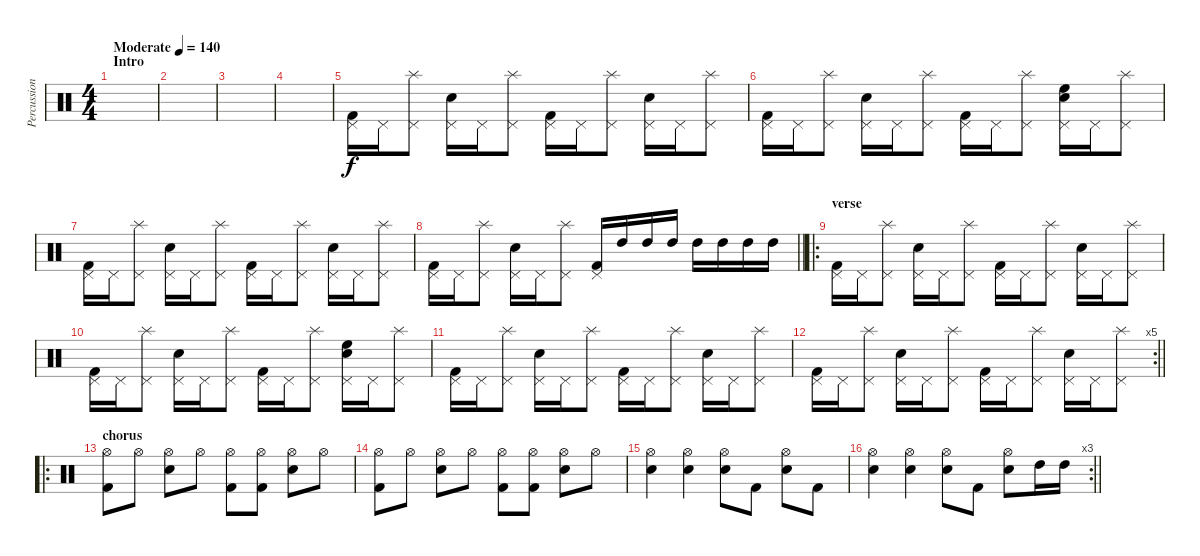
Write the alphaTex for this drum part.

\track ("Percussion" "Percussion") {instrument percussion}
\staff {score}
\articulation defaults
\ts (4 4)
\section ("" "Intro")
\tempo (140 "Moderate")
\clef neutral
\ks c
|
|
|
|
("Kick (hit) 2" "Pedal Hi-Hat (hit)").16 "Pedal Hi-Hat (hit)".16 ("Pedal Hi-Hat (hit)" "Splash (hit)").8 ("Snare (hit) 2" "Pedal Hi-Hat (hit)").16 "Pedal Hi-Hat (hit)".16 ("Pedal Hi-Hat (hit)" "Splash (hit)").8 ("Kick (hit) 2" "Pedal Hi-Hat (hit)").16 "Pedal Hi-Hat (hit)".16 ("Pedal Hi-Hat (hit)" "Splash (hit)").8 ("Snare (hit) 2" "Pedal Hi-Hat (hit)").16 "Pedal Hi-Hat (hit)".16 ("Pedal Hi-Hat (hit)" "Splash (hit)").8 |
("Kick (hit) 2" "Pedal Hi-Hat (hit)").16 "Pedal Hi-Hat (hit)".16 ("Pedal Hi-Hat (hit)" "Splash (hit)").8 ("Snare (hit) 2" "Pedal Hi-Hat (hit)").16 "Pedal Hi-Hat (hit)".16 ("Pedal Hi-Hat (hit)" "Splash (hit)").8 ("Kick (hit) 2" "Pedal Hi-Hat (hit)").16 "Pedal Hi-Hat (hit)".16 ("Pedal Hi-Hat (hit)" "Splash (hit)").8 ("Snare (hit) 2" "High Floor Tom (hit)" "Pedal Hi-Hat (hit)").16 "Pedal Hi-Hat (hit)".16 ("Pedal Hi-Hat (hit)" "Splash (hit)").8 |
("Kick (hit) 2" "Pedal Hi-Hat (hit)").16 "Pedal Hi-Hat (hit)".16 ("Pedal Hi-Hat (hit)" "Splash (hit)").8 ("Snare (hit) 2" "Pedal Hi-Hat (hit)").16 "Pedal Hi-Hat (hit)".16 ("Pedal Hi-Hat (hit)" "Splash (hit)").8 ("Kick (hit) 2" "Pedal Hi-Hat (hit)").16 "Pedal Hi-Hat (hit)".16 ("Pedal Hi-Hat (hit)" "Splash (hit)").8 ("Snare (hit) 2" "Pedal Hi-Hat (hit)").16 "Pedal Hi-Hat (hit)".16 ("Pedal Hi-Hat (hit)" "Splash (hit)").8 |
\barLineRight lightlight
("Kick (hit) 2" "Pedal Hi-Hat (hit)").16 "Pedal Hi-Hat (hit)".16 ("Pedal Hi-Hat (hit)" "Splash (hit)").8 ("Snare (hit) 2" "Pedal Hi-Hat (hit)").16 "Pedal Hi-Hat (hit)".16 ("Pedal Hi-Hat (hit)" "Splash (hit)").8 ("Kick (hit) 2" "Pedal Hi-Hat (hit)").16 "High Tom (hit)".16 "High Tom (hit)".16 "High Tom (hit)".16 "High Tom (hit)".16 "High Tom (hit)".16 "High Tom (hit)".16 "High Tom (hit)".16 |
\ro
\section ("" "verse")
("Kick (hit) 2" "Pedal Hi-Hat (hit)").16 "Pedal Hi-Hat (hit)".16 ("Pedal Hi-Hat (hit)" "Splash (hit)").8 ("Snare (hit) 2" "Pedal Hi-Hat (hit)").16 "Pedal Hi-Hat (hit)".16 ("Pedal Hi-Hat (hit)" "Splash (hit)").8 ("Kick (hit) 2" "Pedal Hi-Hat (hit)").16 "Pedal Hi-Hat (hit)".16 ("Pedal Hi-Hat (hit)" "Splash (hit)").8 ("Snare (hit) 2" "Pedal Hi-Hat (hit)").16 "Pedal Hi-Hat (hit)".16 ("Pedal Hi-Hat (hit)" "Splash (hit)").8 |
("Kick (hit) 2" "Pedal Hi-Hat (hit)").16 "Pedal Hi-Hat (hit)".16 ("Pedal Hi-Hat (hit)" "Splash (hit)").8 ("Snare (hit) 2" "Pedal Hi-Hat (hit)").16 "Pedal Hi-Hat (hit)".16 ("Pedal Hi-Hat (hit)" "Splash (hit)").8 ("Kick (hit) 2" "Pedal Hi-Hat (hit)").16 "Pedal Hi-Hat (hit)".16 ("Pedal Hi-Hat (hit)" "Splash (hit)").8 ("Snare (hit) 2" "High Floor Tom (hit)" "Pedal Hi-Hat (hit)").16 "Pedal Hi-Hat (hit)".16 ("Pedal Hi-Hat (hit)" "Splash (hit)").8 |
("Kick (hit) 2" "Pedal Hi-Hat (hit)").16 "Pedal Hi-Hat (hit)".16 ("Pedal Hi-Hat (hit)" "Splash (hit)").8 ("Snare (hit) 2" "Pedal Hi-Hat (hit)").16 "Pedal Hi-Hat (hit)".16 ("Pedal Hi-Hat (hit)" "Splash (hit)").8 ("Kick (hit) 2" "Pedal Hi-Hat (hit)").16 "Pedal Hi-Hat (hit)".16 ("Pedal Hi-Hat (hit)" "Splash (hit)").8 ("Snare (hit) 2" "Pedal Hi-Hat (hit)").16 "Pedal Hi-Hat (hit)".16 ("Pedal Hi-Hat (hit)" "Splash (hit)").8 |
\rc 5
\barLineRight lightlight
("Kick (hit) 2" "Pedal Hi-Hat (hit)").16 "Pedal Hi-Hat (hit)".16 ("Pedal Hi-Hat (hit)" "Splash (hit)").8 ("Snare (hit) 2" "Pedal Hi-Hat (hit)").16 "Pedal Hi-Hat (hit)".16 ("Pedal Hi-Hat (hit)" "Splash (hit)").8 ("Kick (hit) 2" "Pedal Hi-Hat (hit)").16 "Pedal Hi-Hat (hit)".16 ("Pedal Hi-Hat (hit)" "Splash (hit)").8 ("Snare (hit) 2" "Pedal Hi-Hat (hit)").16 "Pedal Hi-Hat (hit)".16 ("Pedal Hi-Hat (hit)" "Splash (hit)").8 |
\ro
\section ("" "chorus")
("Kick (hit) 2" "Hi-Hat (open)").8 "Hi-Hat (open)".8 ("Snare (hit) 2" "Hi-Hat (open)").8 "Hi-Hat (open)".8 ("Kick (hit) 2" "Hi-Hat (open)").8 ("Kick (hit) 2" "Hi-Hat (open)").8 ("Snare (hit) 2" "Hi-Hat (open)").8 "Hi-Hat (open)".8 |
("Kick (hit) 2" "Hi-Hat (open)").8 "Hi-Hat (open)".8 ("Snare (hit) 2" "Hi-Hat (open)").8 "Hi-Hat (open)".8 ("Kick (hit) 2" "Hi-Hat (open)").8 ("Kick (hit) 2" "Hi-Hat (open)").8 ("Snare (hit) 2" "Hi-Hat (open)").8 "Hi-Hat (open)".8 |
("Snare (hit) 2" "Hi-Hat (open)").4 ("Snare (hit) 2" "Hi-Hat (open)").4 ("Snare (hit) 2" "Hi-Hat (open)").8 "Kick (hit) 2".8 ("Snare (hit) 2" "Hi-Hat (open)").8 "Kick (hit) 2".8 |
\rc 3
\barLineRight lightlight
("Snare (hit) 2" "Hi-Hat (open)").4 ("Snare (hit) 2" "Hi-Hat (open)").4 ("Snare (hit) 2" "Hi-Hat (open)").8 "Kick (hit) 2".8 ("Snare (hit) 2" "Hi-Hat (open)").8 "High Tom (hit)".16 "High Tom (hit)".16
